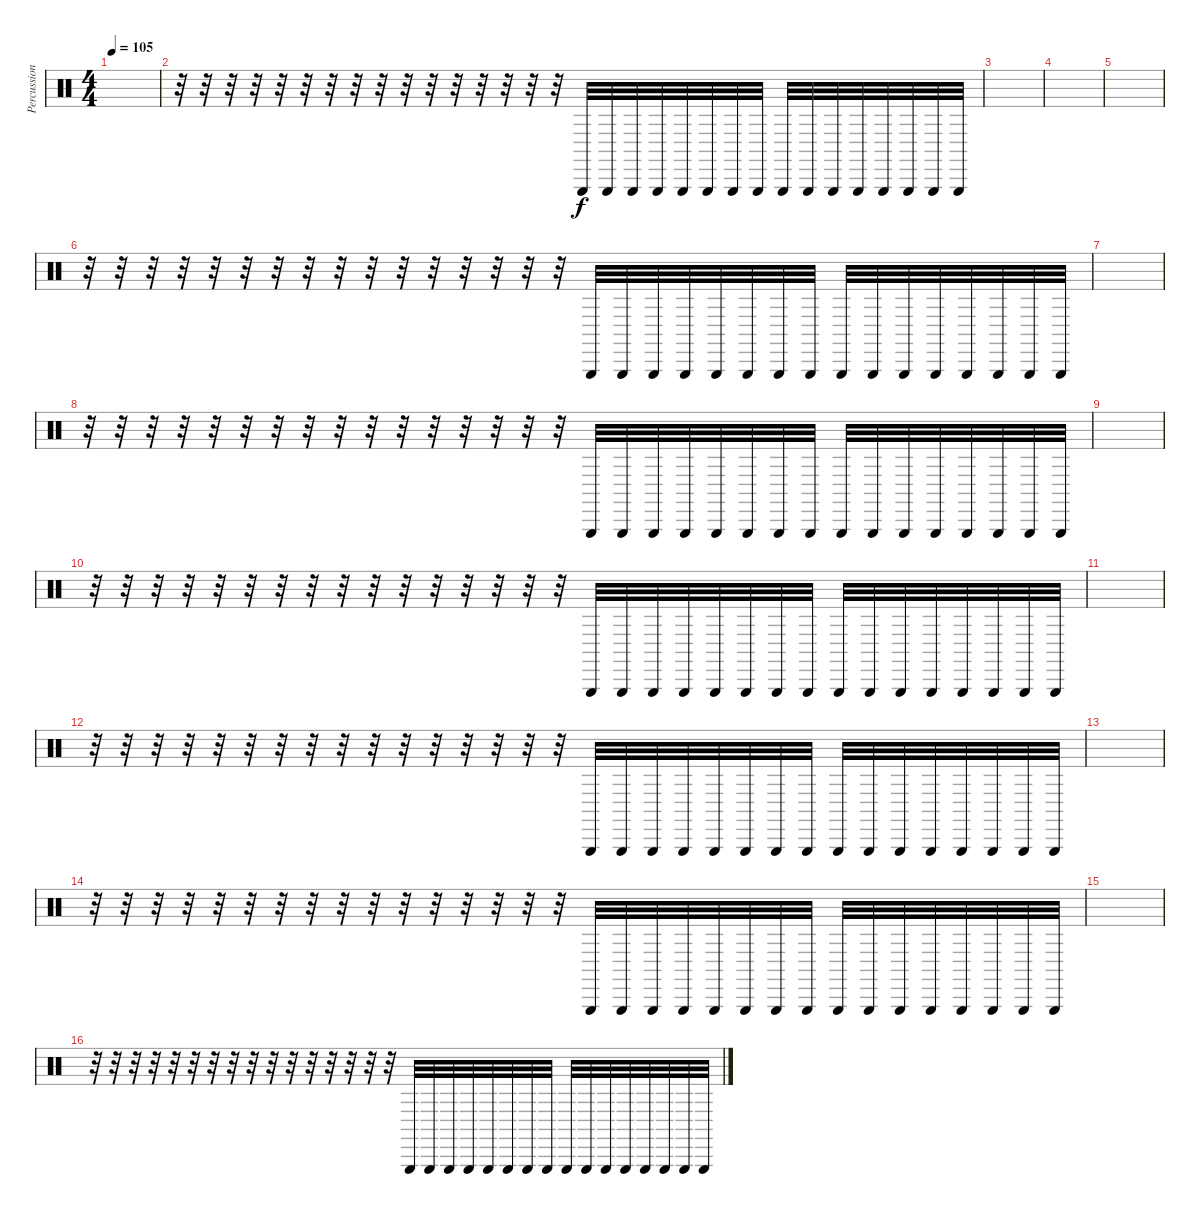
\track ("Percussion" "Percussion") {instrument percussion}
\staff {score}
\articulation defaults
\ts (4 4)
\tempo 105
\clef neutral
\ks c
|
r.32 r.32 r.32 r.32 r.32 r.32 r.32 r.32 r.32 r.32 r.32 r.32 r.32 r.32 r.32 r.32 "Triangle (hit)".32{balance 4} "Triangle (hit)".32{balance 5} "Triangle (hit)".32{balance 11} "Triangle (hit)".32{balance 8} "Triangle (hit)".32{balance 3} "Triangle (hit)".32{balance 7} "Triangle (hit)".32{balance 14} "Triangle (hit)".32{balance 10} "Triangle (hit)".32{balance 5} "Triangle (hit)".32{balance 5} "Triangle (hit)".32{balance 13} "Triangle (hit)".32{balance 11} "Triangle (hit)".32{balance 8} "Triangle (hit)".32{balance 5} "Triangle (hit)".32{balance 4} "Triangle (hit)".32{balance 8} |
|
|
|
r.32 r.32 r.32 r.32 r.32 r.32 r.32 r.32 r.32 r.32 r.32 r.32 r.32 r.32 r.32 r.32 "Triangle (hit)".32{balance 4} "Triangle (hit)".32{balance 5} "Triangle (hit)".32{balance 11} "Triangle (hit)".32{balance 8} "Triangle (hit)".32{balance 3} "Triangle (hit)".32{balance 7} "Triangle (hit)".32{balance 14} "Triangle (hit)".32{balance 10} "Triangle (hit)".32{balance 5} "Triangle (hit)".32{balance 5} "Triangle (hit)".32{balance 13} "Triangle (hit)".32{balance 11} "Triangle (hit)".32{balance 8} "Triangle (hit)".32{balance 5} "Triangle (hit)".32{balance 4} "Triangle (hit)".32{balance 8} |
|
r.32 r.32 r.32 r.32 r.32 r.32 r.32 r.32 r.32 r.32 r.32 r.32 r.32 r.32 r.32 r.32 "Triangle (hit)".32{balance 4} "Triangle (hit)".32{balance 5} "Triangle (hit)".32{balance 11} "Triangle (hit)".32{balance 8} "Triangle (hit)".32{balance 3} "Triangle (hit)".32{balance 7} "Triangle (hit)".32{balance 14} "Triangle (hit)".32{balance 10} "Triangle (hit)".32{balance 5} "Triangle (hit)".32{balance 5} "Triangle (hit)".32{balance 13} "Triangle (hit)".32{balance 11} "Triangle (hit)".32{balance 8} "Triangle (hit)".32{balance 5} "Triangle (hit)".32{balance 4} "Triangle (hit)".32{balance 8} |
|
r.32 r.32 r.32 r.32 r.32 r.32 r.32 r.32 r.32 r.32 r.32 r.32 r.32 r.32 r.32 r.32 "Triangle (hit)".32{balance 4} "Triangle (hit)".32{balance 5} "Triangle (hit)".32{balance 11} "Triangle (hit)".32{balance 8} "Triangle (hit)".32{balance 3} "Triangle (hit)".32{balance 7} "Triangle (hit)".32{balance 14} "Triangle (hit)".32{balance 10} "Triangle (hit)".32{balance 5} "Triangle (hit)".32{balance 5} "Triangle (hit)".32{balance 13} "Triangle (hit)".32{balance 11} "Triangle (hit)".32{balance 8} "Triangle (hit)".32{balance 5} "Triangle (hit)".32{balance 4} "Triangle (hit)".32{balance 8} |
|
r.32 r.32 r.32 r.32 r.32 r.32 r.32 r.32 r.32 r.32 r.32 r.32 r.32 r.32 r.32 r.32 "Triangle (hit)".32{balance 4} "Triangle (hit)".32{balance 5} "Triangle (hit)".32{balance 11} "Triangle (hit)".32{balance 8} "Triangle (hit)".32{balance 3} "Triangle (hit)".32{balance 7} "Triangle (hit)".32{balance 14} "Triangle (hit)".32{balance 10} "Triangle (hit)".32{balance 5} "Triangle (hit)".32{balance 5} "Triangle (hit)".32{balance 13} "Triangle (hit)".32{balance 11} "Triangle (hit)".32{balance 8} "Triangle (hit)".32{balance 5} "Triangle (hit)".32{balance 4} "Triangle (hit)".32{balance 8} |
|
r.32 r.32 r.32 r.32 r.32 r.32 r.32 r.32 r.32 r.32 r.32 r.32 r.32 r.32 r.32 r.32 "Triangle (hit)".32{balance 4} "Triangle (hit)".32{balance 5} "Triangle (hit)".32{balance 11} "Triangle (hit)".32{balance 8} "Triangle (hit)".32{balance 3} "Triangle (hit)".32{balance 7} "Triangle (hit)".32{balance 14} "Triangle (hit)".32{balance 10} "Triangle (hit)".32{balance 5} "Triangle (hit)".32{balance 5} "Triangle (hit)".32{balance 13} "Triangle (hit)".32{balance 11} "Triangle (hit)".32{balance 8} "Triangle (hit)".32{balance 5} "Triangle (hit)".32{balance 4} "Triangle (hit)".32{balance 8} |
|
r.32 r.32 r.32 r.32 r.32 r.32 r.32 r.32 r.32 r.32 r.32 r.32 r.32 r.32 r.32 r.32 "Triangle (hit)".32{balance 4} "Triangle (hit)".32{balance 5} "Triangle (hit)".32{balance 11} "Triangle (hit)".32{balance 8} "Triangle (hit)".32{balance 3} "Triangle (hit)".32{balance 7} "Triangle (hit)".32{balance 14} "Triangle (hit)".32{balance 10} "Triangle (hit)".32{balance 5} "Triangle (hit)".32{balance 5} "Triangle (hit)".32{balance 13} "Triangle (hit)".32{balance 11} "Triangle (hit)".32{balance 8} "Triangle (hit)".32{balance 5} "Triangle (hit)".32{balance 4} "Triangle (hit)".32{balance 8}
